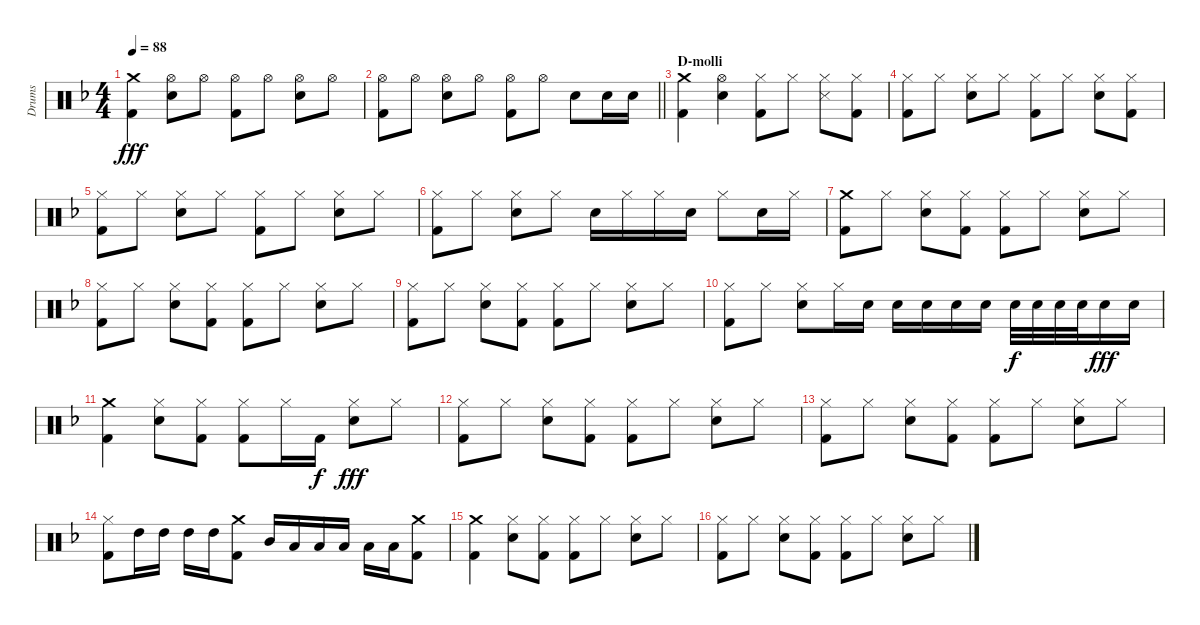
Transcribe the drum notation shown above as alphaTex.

\track ("Drums" "Drums") {instrument percussion}
\staff {score}
\articulation defaults
\ts (4 4)
\tempo 88
\clef neutral
\ks dminor
("Crash medium (hit)" "Kick (hit) 2").4{dy fff} ("Hi-Hat (open)" "Snare (hit) 2").8 "Hi-Hat (open)".8 ("Hi-Hat (open)" "Kick (hit) 2").8 "Hi-Hat (open)".8 ("Hi-Hat (open)" "Snare (hit) 2").8 "Hi-Hat (open)".8 |
\barLineRight lightlight
("Hi-Hat (open)" "Kick (hit) 2").8 "Hi-Hat (open)".8 ("Hi-Hat (open)" "Snare (hit) 2").8 "Hi-Hat (open)".8 ("Hi-Hat (open)" "Kick (hit) 2").8 "Hi-Hat (open)".8 "Snare (hit) 2".8 "Snare (hit) 2".16 "Snare (hit) 2".16 |
\section ("" "D-molli")
("Crash medium (hit)" "Kick (hit) 2").4 ("Hi-Hat (open)" "Snare (hit) 2").4 ("Hi-Hat (closed)" "Kick (hit) 2").8 "Hi-Hat (closed)".8 ("Hi-Hat (closed)" "Snare (side stick) 3").8 ("Hi-Hat (closed)" "Kick (hit) 2").8 |
("Hi-Hat (closed)" "Kick (hit) 2").8 "Hi-Hat (closed)".8 ("Hi-Hat (closed)" "Snare (hit) 2").8 "Hi-Hat (closed)".8 ("Hi-Hat (closed)" "Kick (hit) 2").8 "Hi-Hat (closed)".8 ("Hi-Hat (closed)" "Snare (hit) 2").8 ("Hi-Hat (closed)" "Kick (hit) 2").8 |
("Hi-Hat (closed)" "Kick (hit) 2").8 "Hi-Hat (closed)".8 ("Hi-Hat (closed)" "Snare (hit) 2").8 "Hi-Hat (closed)".8 ("Hi-Hat (closed)" "Kick (hit) 2").8 "Hi-Hat (closed)".8 ("Hi-Hat (closed)" "Snare (hit) 2").8 "Hi-Hat (closed)".8 |
("Hi-Hat (closed)" "Kick (hit) 2").8 "Hi-Hat (closed)".8 ("Hi-Hat (closed)" "Snare (hit) 2").8 "Hi-Hat (closed)".8 "Snare (hit) 2".16 "Hi-Hat (closed)".16 "Hi-Hat (closed)".16 "Snare (hit) 2".16 "Hi-Hat (closed)".8 "Snare (hit) 2".16 "Hi-Hat (closed)".16 |
("Crash medium (hit)" "Kick (hit) 2").8 "Hi-Hat (closed)".8 ("Hi-Hat (closed)" "Snare (hit) 2").8 ("Hi-Hat (closed)" "Kick (hit) 2").8 ("Hi-Hat (closed)" "Kick (hit) 2").8 "Hi-Hat (closed)".8 ("Hi-Hat (closed)" "Snare (hit) 2").8 "Hi-Hat (closed)".8 |
("Hi-Hat (closed)" "Kick (hit) 2").8 "Hi-Hat (closed)".8 ("Hi-Hat (closed)" "Snare (hit) 2").8 ("Hi-Hat (closed)" "Kick (hit) 2").8 ("Hi-Hat (closed)" "Kick (hit) 2").8 "Hi-Hat (closed)".8 ("Hi-Hat (closed)" "Snare (hit) 2").8 "Hi-Hat (closed)".8 |
("Hi-Hat (closed)" "Kick (hit) 2").8 "Hi-Hat (closed)".8 ("Hi-Hat (closed)" "Snare (hit) 2").8 ("Hi-Hat (closed)" "Kick (hit) 2").8 ("Hi-Hat (closed)" "Kick (hit) 2").8 "Hi-Hat (closed)".8 ("Hi-Hat (closed)" "Snare (hit) 2").8 "Hi-Hat (closed)".8 |
("Hi-Hat (closed)" "Kick (hit) 2").8 "Hi-Hat (closed)".8 ("Hi-Hat (closed)" "Snare (hit) 2").8 "Hi-Hat (closed)".16 "Snare (hit) 2".16 "Snare (hit) 2".16 "Snare (hit) 2".16 "Snare (hit) 2".16 "Snare (hit) 2".16 "Snare (hit) 2".32{dy f} "Snare (hit) 2".32 "Snare (hit) 2".32 "Snare (hit) 2".32 "Snare (hit) 2".16{dy fff} "Snare (hit) 2".16 |
("Crash medium (hit)" "Kick (hit) 2").4 ("Hi-Hat (closed)" "Snare (hit) 2").8 ("Hi-Hat (closed)" "Kick (hit) 2").8 ("Hi-Hat (closed)" "Kick (hit) 2").8 "Hi-Hat (closed)".16 "Kick (hit) 2".16{dy f} ("Hi-Hat (closed)" "Snare (hit) 2").8{dy fff} "Hi-Hat (closed)".8 |
("Hi-Hat (closed)" "Kick (hit) 2").8 "Hi-Hat (closed)".8 ("Hi-Hat (closed)" "Snare (hit) 2").8 ("Hi-Hat (closed)" "Kick (hit) 2").8 ("Hi-Hat (closed)" "Kick (hit) 2").8 "Hi-Hat (closed)".8 ("Hi-Hat (closed)" "Snare (hit) 2").8 "Hi-Hat (closed)".8 |
("Hi-Hat (closed)" "Kick (hit) 2").8 "Hi-Hat (closed)".8 ("Hi-Hat (closed)" "Snare (hit) 2").8 ("Hi-Hat (closed)" "Kick (hit) 2").8 ("Hi-Hat (closed)" "Kick (hit) 2").8 "Hi-Hat (closed)".8 ("Hi-Hat (closed)" "Snare (hit) 2").8 "Hi-Hat (closed)".8 |
("Hi-Hat (closed)" "Kick (hit) 2").8 "High Tom (hit)".16 "High Tom (hit)".16 "High Tom (hit)".16 "High Tom (hit)".16 ("Crash medium (hit)" "Kick (hit) 2").8 "Mid Tom (hit)".16 "Low Tom (hit)".16 "Low Tom (hit)".16 "Low Tom (hit)".16 "Low Tom (hit)".16 "Low Tom (hit)".16 ("Crash medium (hit)" "Kick (hit) 2").8 |
("Crash medium (hit)" "Kick (hit) 2").4 ("Hi-Hat (closed)" "Snare (hit) 2").8 ("Hi-Hat (closed)" "Kick (hit) 2").8 ("Hi-Hat (closed)" "Kick (hit) 2").8 "Hi-Hat (closed)".8 ("Hi-Hat (closed)" "Snare (hit) 2").8 "Hi-Hat (closed)".8 |
("Hi-Hat (closed)" "Kick (hit) 2").8 "Hi-Hat (closed)".8 ("Hi-Hat (closed)" "Snare (hit) 2").8 ("Hi-Hat (closed)" "Kick (hit) 2").8 ("Hi-Hat (closed)" "Kick (hit) 2").8 "Hi-Hat (closed)".8 ("Hi-Hat (closed)" "Snare (hit) 2").8 "Hi-Hat (closed)".8
